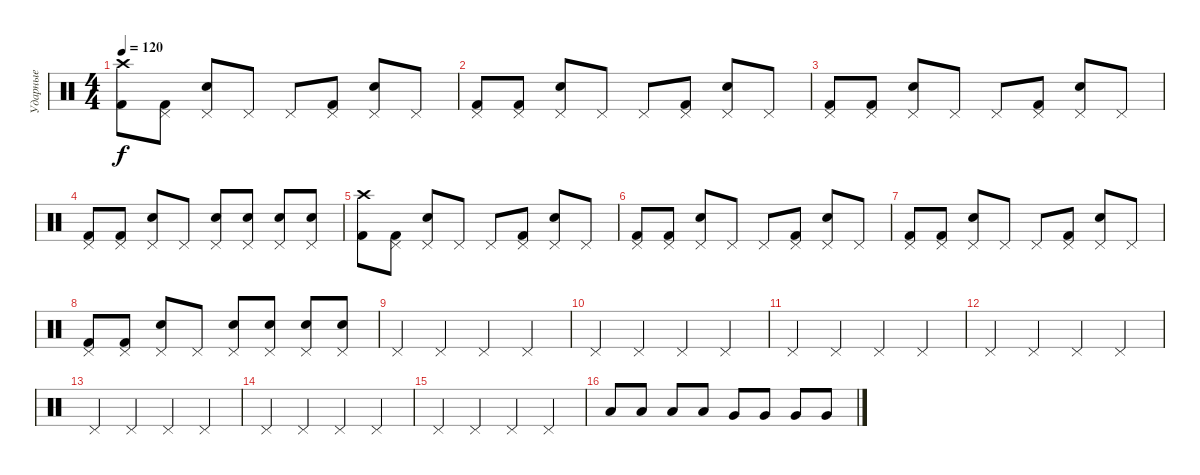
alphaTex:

\track ("Ударные" "Ударные") {instrument percussion}
\staff {score}
\articulation defaults
\ts (4 4)
\tempo 120
\clef neutral
\ks c
("Crash high (hit)" "Kick (hit) 2").8{dy f} ("Pedal Hi-Hat (hit)" "Kick (hit) 2").8 ("Pedal Hi-Hat (hit)" "Snare (hit) 2").8 "Pedal Hi-Hat (hit)".8 "Pedal Hi-Hat (hit)".8 ("Pedal Hi-Hat (hit)" "Kick (hit) 2").8 ("Pedal Hi-Hat (hit)" "Snare (hit) 2").8 "Pedal Hi-Hat (hit)".8 |
("Pedal Hi-Hat (hit)" "Kick (hit) 2").8 ("Pedal Hi-Hat (hit)" "Kick (hit) 2").8 ("Pedal Hi-Hat (hit)" "Snare (hit) 2").8 "Pedal Hi-Hat (hit)".8 "Pedal Hi-Hat (hit)".8 ("Pedal Hi-Hat (hit)" "Kick (hit) 2").8 ("Pedal Hi-Hat (hit)" "Snare (hit) 2").8 "Pedal Hi-Hat (hit)".8 |
("Pedal Hi-Hat (hit)" "Kick (hit) 2").8 ("Pedal Hi-Hat (hit)" "Kick (hit) 2").8 ("Pedal Hi-Hat (hit)" "Snare (hit) 2").8 "Pedal Hi-Hat (hit)".8 "Pedal Hi-Hat (hit)".8 ("Pedal Hi-Hat (hit)" "Kick (hit) 2").8 ("Pedal Hi-Hat (hit)" "Snare (hit) 2").8 "Pedal Hi-Hat (hit)".8 |
("Pedal Hi-Hat (hit)" "Kick (hit) 2").8 ("Pedal Hi-Hat (hit)" "Kick (hit) 2").8 ("Pedal Hi-Hat (hit)" "Snare (hit) 2").8 "Pedal Hi-Hat (hit)".8 ("Pedal Hi-Hat (hit)" "Snare (hit) 2").8 ("Pedal Hi-Hat (hit)" "Snare (hit) 2").8 ("Pedal Hi-Hat (hit)" "Snare (hit) 2").8 ("Pedal Hi-Hat (hit)" "Snare (hit) 2").8 |
("Crash high (hit)" "Kick (hit) 2").8 ("Pedal Hi-Hat (hit)" "Kick (hit) 2").8 ("Pedal Hi-Hat (hit)" "Snare (hit) 2").8 "Pedal Hi-Hat (hit)".8 "Pedal Hi-Hat (hit)".8 ("Pedal Hi-Hat (hit)" "Kick (hit) 2").8 ("Pedal Hi-Hat (hit)" "Snare (hit) 2").8 "Pedal Hi-Hat (hit)".8 |
("Pedal Hi-Hat (hit)" "Kick (hit) 2").8 ("Pedal Hi-Hat (hit)" "Kick (hit) 2").8 ("Pedal Hi-Hat (hit)" "Snare (hit) 2").8 "Pedal Hi-Hat (hit)".8 "Pedal Hi-Hat (hit)".8 ("Pedal Hi-Hat (hit)" "Kick (hit) 2").8 ("Pedal Hi-Hat (hit)" "Snare (hit) 2").8 "Pedal Hi-Hat (hit)".8 |
("Pedal Hi-Hat (hit)" "Kick (hit) 2").8 ("Pedal Hi-Hat (hit)" "Kick (hit) 2").8 ("Pedal Hi-Hat (hit)" "Snare (hit) 2").8 "Pedal Hi-Hat (hit)".8 "Pedal Hi-Hat (hit)".8 ("Pedal Hi-Hat (hit)" "Kick (hit) 2").8 ("Pedal Hi-Hat (hit)" "Snare (hit) 2").8 "Pedal Hi-Hat (hit)".8 |
("Pedal Hi-Hat (hit)" "Kick (hit) 2").8 ("Pedal Hi-Hat (hit)" "Kick (hit) 2").8 ("Pedal Hi-Hat (hit)" "Snare (hit) 2").8 "Pedal Hi-Hat (hit)".8 ("Pedal Hi-Hat (hit)" "Snare (hit) 2").8 ("Pedal Hi-Hat (hit)" "Snare (hit) 2").8 ("Pedal Hi-Hat (hit)" "Snare (hit) 2").8 ("Pedal Hi-Hat (hit)" "Snare (hit) 2").8 |
"Pedal Hi-Hat (hit)".4 "Pedal Hi-Hat (hit)".4 "Pedal Hi-Hat (hit)".4 "Pedal Hi-Hat (hit)".4 |
"Pedal Hi-Hat (hit)".4 "Pedal Hi-Hat (hit)".4 "Pedal Hi-Hat (hit)".4 "Pedal Hi-Hat (hit)".4 |
"Pedal Hi-Hat (hit)".4 "Pedal Hi-Hat (hit)".4 "Pedal Hi-Hat (hit)".4 "Pedal Hi-Hat (hit)".4 |
"Pedal Hi-Hat (hit)".4 "Pedal Hi-Hat (hit)".4 "Pedal Hi-Hat (hit)".4 "Pedal Hi-Hat (hit)".4 |
"Pedal Hi-Hat (hit)".4 "Pedal Hi-Hat (hit)".4 "Pedal Hi-Hat (hit)".4 "Pedal Hi-Hat (hit)".4 |
"Pedal Hi-Hat (hit)".4 "Pedal Hi-Hat (hit)".4 "Pedal Hi-Hat (hit)".4 "Pedal Hi-Hat (hit)".4 |
"Pedal Hi-Hat (hit)".4 "Pedal Hi-Hat (hit)".4 "Pedal Hi-Hat (hit)".4 "Pedal Hi-Hat (hit)".4 |
"Low Floor Tom (hit)".8 "Low Floor Tom (hit)".8 "Low Floor Tom (hit)".8 "Low Floor Tom (hit)".8 "Very Low Tom (hit)".8 "Very Low Tom (hit)".8 "Very Low Tom (hit)".8 "Very Low Tom (hit)".8
